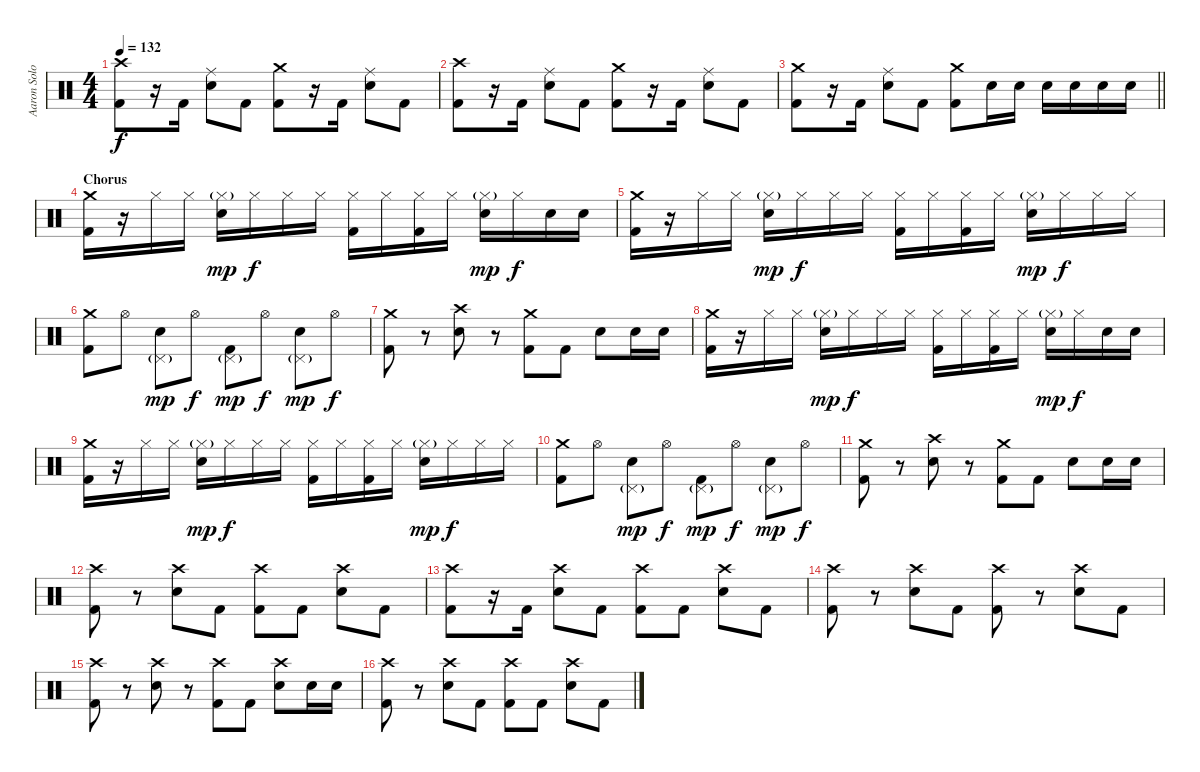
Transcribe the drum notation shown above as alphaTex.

\track ("Aaron Solowoniuk" "Aaron Solo") {instrument percussion}
\staff {score}
\articulation defaults
\ts (4 4)
\tempo 132
\clef neutral
\ks c
("Crash high (hit)" "Kick (hit) 2").8{dy f} r.16 "Kick (hit) 2".16 ("Ride (middle)" "Electric Snare (hit)").8 "Kick (hit) 2".8 ("Crash medium (hit)" "Kick (hit) 2").8 r.16 "Kick (hit) 2".16 ("Ride (middle)" "Electric Snare (hit)").8 "Kick (hit) 2".8 |
("Crash high (hit)" "Kick (hit) 2").8 r.16 "Kick (hit) 2".16 ("Ride (middle)" "Electric Snare (hit)").8 "Kick (hit) 2".8 ("Crash medium (hit)" "Kick (hit) 2").8 r.16 "Kick (hit) 2".16 ("Ride (middle)" "Electric Snare (hit)").8 "Kick (hit) 2".8 |
\barLineRight lightlight
("Crash medium (hit)" "Kick (hit) 2").8 r.16 "Kick (hit) 2".16 ("Ride (middle)" "Electric Snare (hit)").8 "Kick (hit) 2".8 ("Crash medium (hit)" "Kick (hit) 2").8 "Electric Snare (hit)".16 "Electric Snare (hit)".16 "Electric Snare (hit)".16 "Electric Snare (hit)".16 "Electric Snare (hit)".16 "Electric Snare (hit)".16 |
\section ("" "Chorus")
("Crash medium (hit)" "Kick (hit) 2").16 r.16 "Hi-Hat (closed)".16 "Hi-Hat (closed)".16 ("Hi-Hat (closed)"{g} "Electric Snare (hit)").16{dy mp} "Hi-Hat (closed)".16{dy f} "Hi-Hat (closed)".16 "Hi-Hat (closed)".16 ("Hi-Hat (closed)" "Kick (hit) 2").16 "Hi-Hat (closed)".16 ("Hi-Hat (closed)" "Kick (hit) 2").16 "Hi-Hat (closed)".16 ("Hi-Hat (closed)"{g} "Electric Snare (hit)").16{dy mp} "Hi-Hat (closed)".16{dy f} "Electric Snare (hit)".16 "Electric Snare (hit)".16 |
("Crash medium (hit)" "Kick (hit) 2").16 r.16 "Hi-Hat (closed)".16 "Hi-Hat (closed)".16 ("Hi-Hat (closed)"{g} "Electric Snare (hit)").16{dy mp} "Hi-Hat (closed)".16{dy f} "Hi-Hat (closed)".16 "Hi-Hat (closed)".16 ("Hi-Hat (closed)" "Kick (hit) 2").16 "Hi-Hat (closed)".16 ("Hi-Hat (closed)" "Kick (hit) 2").16 "Hi-Hat (closed)".16 ("Hi-Hat (closed)"{g} "Electric Snare (hit)").16{dy mp} "Hi-Hat (closed)".16{dy f} "Hi-Hat (closed)".16 "Hi-Hat (closed)".16 |
("Crash medium (hit)" "Kick (hit) 2").8 "Hi-Hat (open)".8 ("Pedal Hi-Hat (hit)"{g} "Electric Snare (hit)").8{dy mp} "Hi-Hat (open)".8{dy f} ("Pedal Hi-Hat (hit)"{g} "Kick (hit) 2").8{dy mp} "Hi-Hat (open)".8{dy f} ("Pedal Hi-Hat (hit)"{g} "Electric Snare (hit)").8{dy mp} "Hi-Hat (open)".8{dy f} |
("Crash medium (hit)" "Kick (hit) 2").8 r.8 ("Crash high (hit)" "Electric Snare (hit)").8 r.8 ("Crash medium (hit)" "Kick (hit) 2").8 "Kick (hit) 2".8 "Electric Snare (hit)".8 "Electric Snare (hit)".16 "Electric Snare (hit)".16 |
("Crash medium (hit)" "Kick (hit) 2").16 r.16 "Hi-Hat (closed)".16 "Hi-Hat (closed)".16 ("Hi-Hat (closed)"{g} "Electric Snare (hit)").16{dy mp} "Hi-Hat (closed)".16{dy f} "Hi-Hat (closed)".16 "Hi-Hat (closed)".16 ("Hi-Hat (closed)" "Kick (hit) 2").16 "Hi-Hat (closed)".16 ("Hi-Hat (closed)" "Kick (hit) 2").16 "Hi-Hat (closed)".16 ("Hi-Hat (closed)"{g} "Electric Snare (hit)").16{dy mp} "Hi-Hat (closed)".16{dy f} "Electric Snare (hit)".16 "Electric Snare (hit)".16 |
("Crash medium (hit)" "Kick (hit) 2").16 r.16 "Hi-Hat (closed)".16 "Hi-Hat (closed)".16 ("Hi-Hat (closed)"{g} "Electric Snare (hit)").16{dy mp} "Hi-Hat (closed)".16{dy f} "Hi-Hat (closed)".16 "Hi-Hat (closed)".16 ("Hi-Hat (closed)" "Kick (hit) 2").16 "Hi-Hat (closed)".16 ("Hi-Hat (closed)" "Kick (hit) 2").16 "Hi-Hat (closed)".16 ("Hi-Hat (closed)"{g} "Electric Snare (hit)").16{dy mp} "Hi-Hat (closed)".16{dy f} "Hi-Hat (closed)".16 "Hi-Hat (closed)".16 |
("Crash medium (hit)" "Kick (hit) 2").8 "Hi-Hat (open)".8 ("Pedal Hi-Hat (hit)"{g} "Electric Snare (hit)").8{dy mp} "Hi-Hat (open)".8{dy f} ("Pedal Hi-Hat (hit)"{g} "Kick (hit) 2").8{dy mp} "Hi-Hat (open)".8{dy f} ("Pedal Hi-Hat (hit)"{g} "Electric Snare (hit)").8{dy mp} "Hi-Hat (open)".8{dy f} |
("Crash medium (hit)" "Kick (hit) 2").8 r.8 ("Crash high (hit)" "Electric Snare (hit)").8 r.8 ("Crash medium (hit)" "Kick (hit) 2").8 "Kick (hit) 2".8 "Electric Snare (hit)".8 "Electric Snare (hit)".16 "Electric Snare (hit)".16 |
("Crash high (hit)" "Kick (hit) 2").8 r.8 ("Crash high (hit)" "Electric Snare (hit)").8 "Kick (hit) 2".8 ("Crash high (hit)" "Kick (hit) 2").8 "Kick (hit) 2".8 ("Crash high (hit)" "Electric Snare (hit)").8 "Kick (hit) 2".8 |
("Crash high (hit)" "Kick (hit) 2").8 r.16 "Kick (hit) 2".16 ("Crash high (hit)" "Electric Snare (hit)").8 "Kick (hit) 2".8 ("Crash high (hit)" "Kick (hit) 2").8 "Kick (hit) 2".8 ("Crash high (hit)" "Electric Snare (hit)").8 "Kick (hit) 2".8 |
("Crash high (hit)" "Kick (hit) 2").8 r.8 ("Crash high (hit)" "Electric Snare (hit)").8 "Kick (hit) 2".8 ("Crash high (hit)" "Kick (hit) 2").8 r.8 ("Crash high (hit)" "Electric Snare (hit)").8 "Kick (hit) 2".8 |
("Crash high (hit)" "Kick (hit) 2").8 r.8 ("Crash high (hit)" "Electric Snare (hit)").8 r.8 ("Crash high (hit)" "Kick (hit) 2").8 "Kick (hit) 2".8 ("Crash high (hit)" "Electric Snare (hit)").8 "Electric Snare (hit)".16 "Electric Snare (hit)".16 |
("Crash high (hit)" "Kick (hit) 2").8 r.8 ("Crash high (hit)" "Electric Snare (hit)").8 "Kick (hit) 2".8 ("Crash high (hit)" "Kick (hit) 2").8 "Kick (hit) 2".8 ("Crash high (hit)" "Electric Snare (hit)").8 "Kick (hit) 2".8
